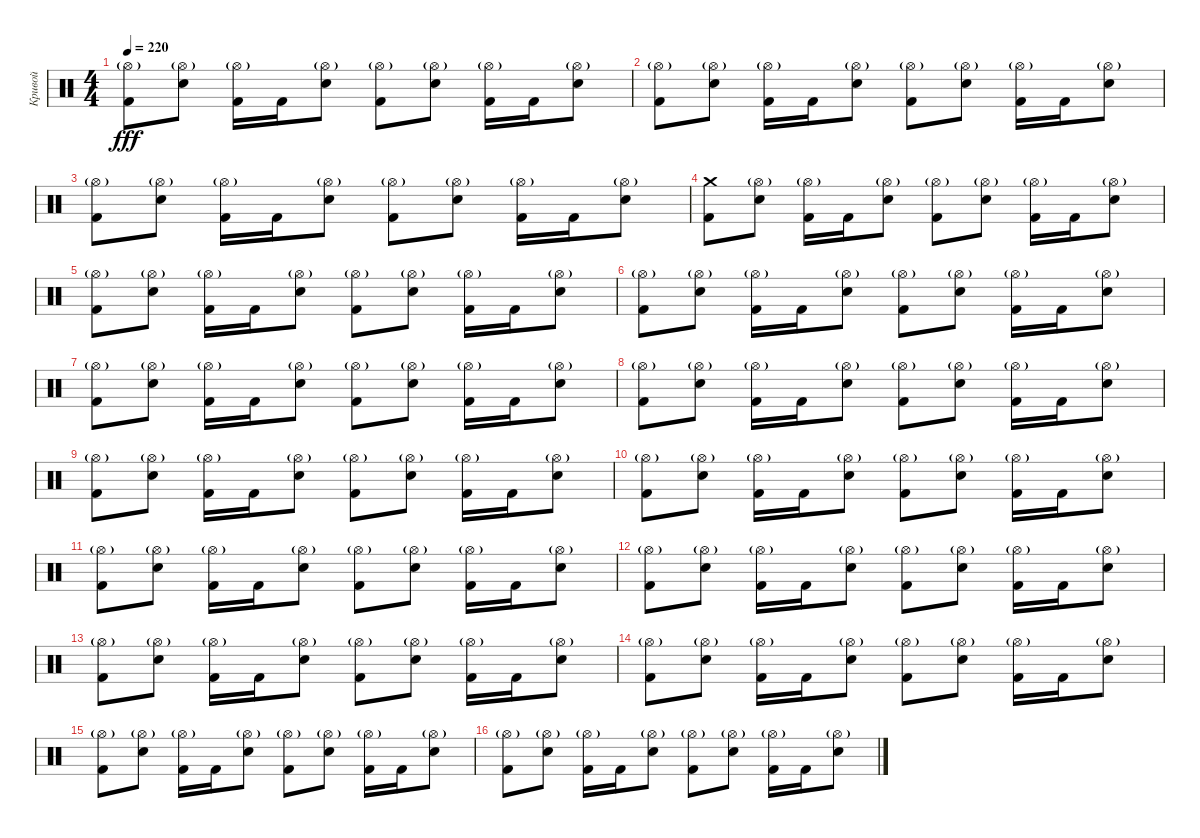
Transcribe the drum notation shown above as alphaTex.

\track ("Кривой" "Кривой") {instrument percussion}
\staff {score}
\articulation defaults
\ts (4 4)
\tempo 220
\clef neutral
\ks c
("Hi-Hat (open)"{g} "Kick (hit) 2").8{dy fff} ("Hi-Hat (open)"{g} "Electric Snare (hit)").8 ("Hi-Hat (open)"{g} "Kick (hit) 2").16 "Kick (hit) 2".16 ("Hi-Hat (open)"{g} "Electric Snare (hit)").8 ("Hi-Hat (open)"{g} "Kick (hit) 2").8 ("Hi-Hat (open)"{g} "Electric Snare (hit)").8 ("Hi-Hat (open)"{g} "Kick (hit) 2").16 "Kick (hit) 2".16 ("Hi-Hat (open)"{g} "Electric Snare (hit)").8 |
("Hi-Hat (open)"{g} "Kick (hit) 2").8 ("Hi-Hat (open)"{g} "Electric Snare (hit)").8 ("Hi-Hat (open)"{g} "Kick (hit) 2").16 "Kick (hit) 2".16 ("Hi-Hat (open)"{g} "Electric Snare (hit)").8 ("Hi-Hat (open)"{g} "Kick (hit) 2").8 ("Hi-Hat (open)"{g} "Electric Snare (hit)").8 ("Hi-Hat (open)"{g} "Kick (hit) 2").16 "Kick (hit) 2".16 ("Hi-Hat (open)"{g} "Electric Snare (hit)").8 |
("Hi-Hat (open)"{g} "Kick (hit) 2").8 ("Hi-Hat (open)"{g} "Electric Snare (hit)").8 ("Hi-Hat (open)"{g} "Kick (hit) 2").16 "Kick (hit) 2".16 ("Hi-Hat (open)"{g} "Electric Snare (hit)").8 ("Hi-Hat (open)"{g} "Kick (hit) 2").8 ("Hi-Hat (open)"{g} "Electric Snare (hit)").8 ("Hi-Hat (open)"{g} "Kick (hit) 2").16 "Kick (hit) 2".16 ("Hi-Hat (open)"{g} "Electric Snare (hit)").8 |
("Crash medium (hit)" "Kick (hit) 2").8 ("Hi-Hat (open)"{g} "Electric Snare (hit)").8 ("Hi-Hat (open)"{g} "Kick (hit) 2").16 "Kick (hit) 2".16 ("Hi-Hat (open)"{g} "Electric Snare (hit)").8 ("Hi-Hat (open)"{g} "Kick (hit) 2").8 ("Hi-Hat (open)"{g} "Electric Snare (hit)").8 ("Hi-Hat (open)"{g} "Kick (hit) 2").16 "Kick (hit) 2".16 ("Hi-Hat (open)"{g} "Electric Snare (hit)").8 |
("Hi-Hat (open)"{g} "Kick (hit) 2").8 ("Hi-Hat (open)"{g} "Electric Snare (hit)").8 ("Hi-Hat (open)"{g} "Kick (hit) 2").16 "Kick (hit) 2".16 ("Hi-Hat (open)"{g} "Electric Snare (hit)").8 ("Hi-Hat (open)"{g} "Kick (hit) 2").8 ("Hi-Hat (open)"{g} "Electric Snare (hit)").8 ("Hi-Hat (open)"{g} "Kick (hit) 2").16 "Kick (hit) 2".16 ("Hi-Hat (open)"{g} "Electric Snare (hit)").8 |
("Hi-Hat (open)"{g} "Kick (hit) 2").8 ("Hi-Hat (open)"{g} "Electric Snare (hit)").8 ("Hi-Hat (open)"{g} "Kick (hit) 2").16 "Kick (hit) 2".16 ("Hi-Hat (open)"{g} "Electric Snare (hit)").8 ("Hi-Hat (open)"{g} "Kick (hit) 2").8 ("Hi-Hat (open)"{g} "Electric Snare (hit)").8 ("Hi-Hat (open)"{g} "Kick (hit) 2").16 "Kick (hit) 2".16 ("Hi-Hat (open)"{g} "Electric Snare (hit)").8 |
("Hi-Hat (open)"{g} "Kick (hit) 2").8 ("Hi-Hat (open)"{g} "Electric Snare (hit)").8 ("Hi-Hat (open)"{g} "Kick (hit) 2").16 "Kick (hit) 2".16 ("Hi-Hat (open)"{g} "Electric Snare (hit)").8 ("Hi-Hat (open)"{g} "Kick (hit) 2").8 ("Hi-Hat (open)"{g} "Electric Snare (hit)").8 ("Hi-Hat (open)"{g} "Kick (hit) 2").16 "Kick (hit) 2".16 ("Hi-Hat (open)"{g} "Electric Snare (hit)").8 |
("Hi-Hat (open)"{g} "Kick (hit) 2").8 ("Hi-Hat (open)"{g} "Electric Snare (hit)").8 ("Hi-Hat (open)"{g} "Kick (hit) 2").16 "Kick (hit) 2".16 ("Hi-Hat (open)"{g} "Electric Snare (hit)").8 ("Hi-Hat (open)"{g} "Kick (hit) 2").8 ("Hi-Hat (open)"{g} "Electric Snare (hit)").8 ("Hi-Hat (open)"{g} "Kick (hit) 2").16 "Kick (hit) 2".16 ("Hi-Hat (open)"{g} "Electric Snare (hit)").8 |
("Hi-Hat (open)"{g} "Kick (hit) 2").8 ("Hi-Hat (open)"{g} "Electric Snare (hit)").8 ("Hi-Hat (open)"{g} "Kick (hit) 2").16 "Kick (hit) 2".16 ("Hi-Hat (open)"{g} "Electric Snare (hit)").8 ("Hi-Hat (open)"{g} "Kick (hit) 2").8 ("Hi-Hat (open)"{g} "Electric Snare (hit)").8 ("Hi-Hat (open)"{g} "Kick (hit) 2").16 "Kick (hit) 2".16 ("Hi-Hat (open)"{g} "Electric Snare (hit)").8 |
("Hi-Hat (open)"{g} "Kick (hit) 2").8 ("Hi-Hat (open)"{g} "Electric Snare (hit)").8 ("Hi-Hat (open)"{g} "Kick (hit) 2").16 "Kick (hit) 2".16 ("Hi-Hat (open)"{g} "Electric Snare (hit)").8 ("Hi-Hat (open)"{g} "Kick (hit) 2").8 ("Hi-Hat (open)"{g} "Electric Snare (hit)").8 ("Hi-Hat (open)"{g} "Kick (hit) 2").16 "Kick (hit) 2".16 ("Hi-Hat (open)"{g} "Electric Snare (hit)").8 |
("Hi-Hat (open)"{g} "Kick (hit) 2").8 ("Hi-Hat (open)"{g} "Electric Snare (hit)").8 ("Hi-Hat (open)"{g} "Kick (hit) 2").16 "Kick (hit) 2".16 ("Hi-Hat (open)"{g} "Electric Snare (hit)").8 ("Hi-Hat (open)"{g} "Kick (hit) 2").8 ("Hi-Hat (open)"{g} "Electric Snare (hit)").8 ("Hi-Hat (open)"{g} "Kick (hit) 2").16 "Kick (hit) 2".16 ("Hi-Hat (open)"{g} "Electric Snare (hit)").8 |
("Hi-Hat (open)"{g} "Kick (hit) 2").8 ("Hi-Hat (open)"{g} "Electric Snare (hit)").8 ("Hi-Hat (open)"{g} "Kick (hit) 2").16 "Kick (hit) 2".16 ("Hi-Hat (open)"{g} "Electric Snare (hit)").8 ("Hi-Hat (open)"{g} "Kick (hit) 2").8 ("Hi-Hat (open)"{g} "Electric Snare (hit)").8 ("Hi-Hat (open)"{g} "Kick (hit) 2").16 "Kick (hit) 2".16 ("Hi-Hat (open)"{g} "Electric Snare (hit)").8 |
("Hi-Hat (open)"{g} "Kick (hit) 2").8 ("Hi-Hat (open)"{g} "Electric Snare (hit)").8 ("Hi-Hat (open)"{g} "Kick (hit) 2").16 "Kick (hit) 2".16 ("Hi-Hat (open)"{g} "Electric Snare (hit)").8 ("Hi-Hat (open)"{g} "Kick (hit) 2").8 ("Hi-Hat (open)"{g} "Electric Snare (hit)").8 ("Hi-Hat (open)"{g} "Kick (hit) 2").16 "Kick (hit) 2".16 ("Hi-Hat (open)"{g} "Electric Snare (hit)").8 |
("Hi-Hat (open)"{g} "Kick (hit) 2").8 ("Hi-Hat (open)"{g} "Electric Snare (hit)").8 ("Hi-Hat (open)"{g} "Kick (hit) 2").16 "Kick (hit) 2".16 ("Hi-Hat (open)"{g} "Electric Snare (hit)").8 ("Hi-Hat (open)"{g} "Kick (hit) 2").8 ("Hi-Hat (open)"{g} "Electric Snare (hit)").8 ("Hi-Hat (open)"{g} "Kick (hit) 2").16 "Kick (hit) 2".16 ("Hi-Hat (open)"{g} "Electric Snare (hit)").8 |
("Hi-Hat (open)"{g} "Kick (hit) 2").8 ("Hi-Hat (open)"{g} "Electric Snare (hit)").8 ("Hi-Hat (open)"{g} "Kick (hit) 2").16 "Kick (hit) 2".16 ("Hi-Hat (open)"{g} "Electric Snare (hit)").8 ("Hi-Hat (open)"{g} "Kick (hit) 2").8 ("Hi-Hat (open)"{g} "Electric Snare (hit)").8 ("Hi-Hat (open)"{g} "Kick (hit) 2").16 "Kick (hit) 2".16 ("Hi-Hat (open)"{g} "Electric Snare (hit)").8 |
("Hi-Hat (open)"{g} "Kick (hit) 2").8 ("Hi-Hat (open)"{g} "Electric Snare (hit)").8 ("Hi-Hat (open)"{g} "Kick (hit) 2").16 "Kick (hit) 2".16 ("Hi-Hat (open)"{g} "Electric Snare (hit)").8 ("Hi-Hat (open)"{g} "Kick (hit) 2").8 ("Hi-Hat (open)"{g} "Electric Snare (hit)").8 ("Hi-Hat (open)"{g} "Kick (hit) 2").16 "Kick (hit) 2".16 ("Hi-Hat (open)"{g} "Electric Snare (hit)").8
